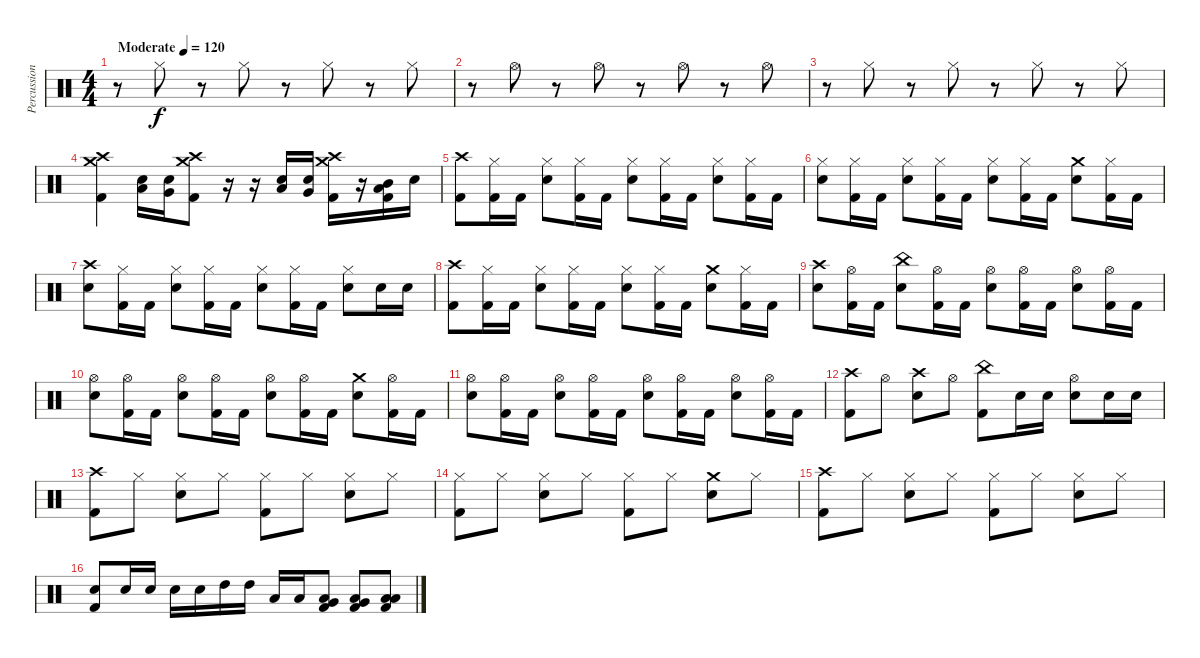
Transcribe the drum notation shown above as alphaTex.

\track ("Percussion" "Percussion") {instrument percussion}
\staff {score}
\articulation defaults
\ts (4 4)
\tempo (120 "Moderate")
\clef neutral
\ks c
r.8{dy f} "Hi-Hat (closed)".8 r.8 "Hi-Hat (closed)".8 r.8 "Hi-Hat (closed)".8 r.8 "Hi-Hat (closed)".8 |
r.8 "Hi-Hat (open)".8 r.8 "Hi-Hat (open)".8 r.8 "Hi-Hat (open)".8 r.8 "Hi-Hat (open)".8 |
r.8 "Hi-Hat (closed)".8 r.8 "Hi-Hat (closed)".8 r.8 "Hi-Hat (closed)".8 r.8 "Hi-Hat (closed)".8 |
("Crash high (hit)" "Crash medium (hit)" "Kick (hit) 2").4 ("Low Tom (hit)" "Snare (hit) 2").16 ("Very Low Tom (hit)" "Snare (hit) 2").16 ("Crash high (hit)" "Crash medium (hit)" "Kick (hit) 2").8 r.16 r.16 ("Low Tom (hit)" "Snare (hit) 2").16 ("Very Low Tom (hit)" "Snare (hit) 2").16 ("Crash high (hit)" "Crash medium (hit)" "Kick (hit) 2").16 r.16 ("Kick (hit) 2" "Mid Tom (hit)" "Low Tom (hit)").16 "Snare (hit) 2".16 |
("Kick (hit) 2" "Crash high (hit)").8 ("Kick (hit) 2" "Hi-Hat (closed)").16 "Kick (hit) 2".16 ("Snare (hit) 2" "Hi-Hat (closed)").8 ("Kick (hit) 2" "Hi-Hat (closed)").16 "Kick (hit) 2".16 ("Snare (hit) 2" "Hi-Hat (closed)").8 ("Kick (hit) 2" "Hi-Hat (closed)").16 "Kick (hit) 2".16 ("Snare (hit) 2" "Hi-Hat (closed)").8 ("Kick (hit) 2" "Hi-Hat (closed)").16 "Kick (hit) 2".16 |
("Snare (hit) 2" "Hi-Hat (closed)").8 ("Kick (hit) 2" "Hi-Hat (closed)").16 "Kick (hit) 2".16 ("Snare (hit) 2" "Hi-Hat (closed)").8 ("Kick (hit) 2" "Hi-Hat (closed)").16 "Kick (hit) 2".16 ("Snare (hit) 2" "Hi-Hat (closed)").8 ("Kick (hit) 2" "Hi-Hat (closed)").16 "Kick (hit) 2".16 ("Snare (hit) 2" "Crash medium (hit)").8 ("Kick (hit) 2" "Hi-Hat (closed)").16 "Kick (hit) 2".16 |
("Snare (hit) 2" "Crash high (hit)").8 ("Kick (hit) 2" "Hi-Hat (closed)").16 "Kick (hit) 2".16 ("Snare (hit) 2" "Hi-Hat (closed)").8 ("Kick (hit) 2" "Hi-Hat (closed)").16 "Kick (hit) 2".16 ("Snare (hit) 2" "Hi-Hat (closed)").8 ("Kick (hit) 2" "Hi-Hat (closed)").16 "Kick (hit) 2".16 ("Snare (hit) 2" "Hi-Hat (closed)").8 "Snare (hit) 2".16 "Snare (hit) 2".16 |
("Kick (hit) 2" "Crash high (hit)").8 ("Kick (hit) 2" "Hi-Hat (closed)").16 "Kick (hit) 2".16 ("Snare (hit) 2" "Hi-Hat (closed)").8 ("Kick (hit) 2" "Hi-Hat (closed)").16 "Kick (hit) 2".16 ("Snare (hit) 2" "Hi-Hat (closed)").8 ("Kick (hit) 2" "Hi-Hat (closed)").16 "Kick (hit) 2".16 ("Snare (hit) 2" "Crash medium (hit)").8 ("Kick (hit) 2" "Hi-Hat (closed)").16 "Kick (hit) 2".16 |
("Snare (hit) 2" "Crash high (hit)").8 ("Kick (hit) 2" "Hi-Hat (open)").16 "Kick (hit) 2".16 ("Snare (hit) 2" "China (hit)").8 ("Kick (hit) 2" "Hi-Hat (open)").16 "Kick (hit) 2".16 ("Snare (hit) 2" "Hi-Hat (open)").8 ("Kick (hit) 2" "Hi-Hat (open)").16 "Kick (hit) 2".16 ("Snare (hit) 2" "Hi-Hat (open)").8 ("Kick (hit) 2" "Hi-Hat (open)").16 "Kick (hit) 2".16 |
("Snare (hit) 2" "Hi-Hat (open)").8 ("Kick (hit) 2" "Hi-Hat (open)").16 "Kick (hit) 2".16 ("Snare (hit) 2" "Hi-Hat (open)").8 ("Kick (hit) 2" "Hi-Hat (open)").16 "Kick (hit) 2".16 ("Snare (hit) 2" "Hi-Hat (open)").8 ("Kick (hit) 2" "Hi-Hat (open)").16 "Kick (hit) 2".16 ("Snare (hit) 2" "Crash medium (hit)").8 ("Kick (hit) 2" "Hi-Hat (open)").16 "Kick (hit) 2".16 |
("Snare (hit) 2" "Hi-Hat (open)").8 ("Kick (hit) 2" "Hi-Hat (open)").16 "Kick (hit) 2".16 ("Snare (hit) 2" "Hi-Hat (open)").8 ("Kick (hit) 2" "Hi-Hat (open)").16 "Kick (hit) 2".16 ("Snare (hit) 2" "Hi-Hat (open)").8 ("Kick (hit) 2" "Hi-Hat (open)").16 "Kick (hit) 2".16 ("Snare (hit) 2" "Hi-Hat (open)").8 ("Kick (hit) 2" "Hi-Hat (open)").16 "Kick (hit) 2".16 |
("Kick (hit) 2" "Crash high (hit)").8 "Hi-Hat (open)".8 ("Snare (hit) 2" "Crash high (hit)").8 "Hi-Hat (open)".8 ("Kick (hit) 2" "China (hit)").8 "Snare (hit) 2".16 "Snare (hit) 2".16 ("Snare (hit) 2" "Hi-Hat (open)").8 "Snare (hit) 2".16 "Snare (hit) 2".16 |
("Kick (hit) 2" "Crash high (hit)").8 "Hi-Hat (closed)".8 ("Snare (hit) 2" "Hi-Hat (closed)").8 "Hi-Hat (closed)".8 ("Kick (hit) 2" "Hi-Hat (closed)").8 "Hi-Hat (closed)".8 ("Snare (hit) 2" "Hi-Hat (closed)").8 "Hi-Hat (closed)".8 |
("Kick (hit) 2" "Hi-Hat (closed)").8 "Hi-Hat (closed)".8 ("Snare (hit) 2" "Hi-Hat (closed)").8 "Hi-Hat (closed)".8 ("Kick (hit) 2" "Hi-Hat (closed)").8 "Hi-Hat (closed)".8 ("Snare (hit) 2" "Crash medium (hit)").8 "Hi-Hat (closed)".8 |
("Crash high (hit)" "Kick (hit) 2").8 "Hi-Hat (closed)".8 ("Snare (hit) 2" "Hi-Hat (closed)").8 "Hi-Hat (closed)".8 ("Kick (hit) 2" "Hi-Hat (closed)").8 "Hi-Hat (closed)".8 ("Snare (hit) 2" "Hi-Hat (closed)").8 "Hi-Hat (closed)".8 |
("Snare (hit) 2" "Kick (hit) 2").8 "Snare (hit) 2".16 "Snare (hit) 2".16 "Snare (hit) 2".16 "Snare (hit) 2".16 "High Tom (hit)".16 "High Tom (hit)".16 "Low Tom (hit)".16 "Low Tom (hit)".16 ("Very Low Tom (hit)" "Low Floor Tom (hit)" "Kick (hit) 2").8 ("Very Low Tom (hit)" "Low Floor Tom (hit)" "Kick (hit) 2").8 ("Low Floor Tom (hit)" "Low Floor Tom (hit)" "Kick (hit) 2").8
